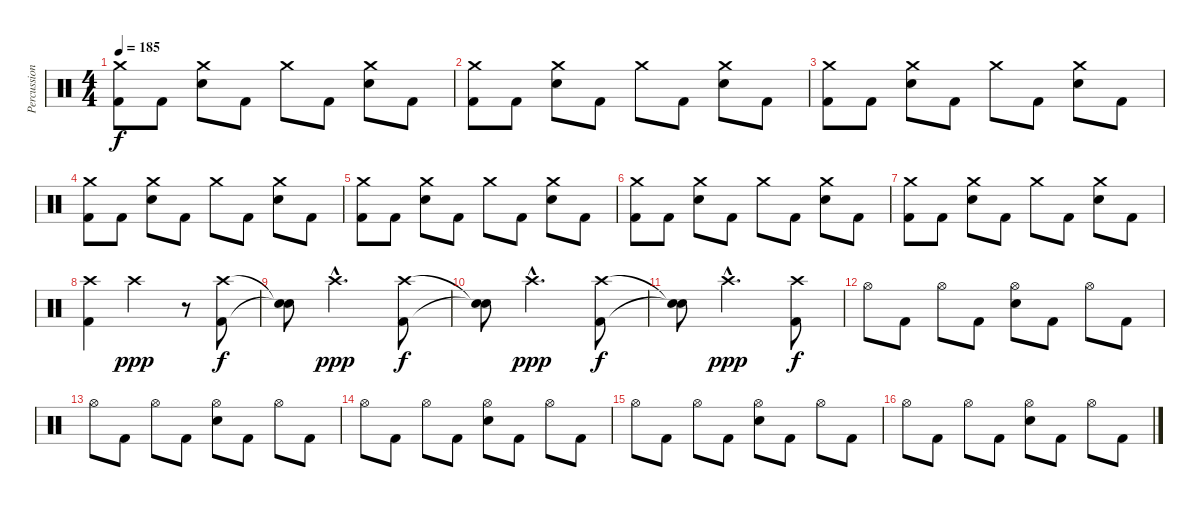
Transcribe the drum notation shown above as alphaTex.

\track ("Percussion" "Percussion") {instrument percussion}
\staff {score}
\articulation defaults
\ts (4 4)
\tempo 185
\clef neutral
\ks c
("Crash medium (hit)" "Kick (hit) 2").8{dy f} "Kick (hit) 2".8 ("Crash medium (hit)" "Electric Snare (hit)").8 "Kick (hit) 2".8 "Crash medium (hit)".8 "Kick (hit) 2".8 ("Crash medium (hit)" "Electric Snare (hit)").8 "Kick (hit) 2".8 |
("Crash medium (hit)" "Kick (hit) 2").8 "Kick (hit) 2".8 ("Crash medium (hit)" "Electric Snare (hit)").8 "Kick (hit) 2".8 "Crash medium (hit)".8 "Kick (hit) 2".8 ("Crash medium (hit)" "Electric Snare (hit)").8 "Kick (hit) 2".8 |
("Crash medium (hit)" "Kick (hit) 2").8 "Kick (hit) 2".8 ("Crash medium (hit)" "Electric Snare (hit)").8 "Kick (hit) 2".8 "Crash medium (hit)".8 "Kick (hit) 2".8 ("Crash medium (hit)" "Electric Snare (hit)").8 "Kick (hit) 2".8 |
("Crash medium (hit)" "Kick (hit) 2").8 "Kick (hit) 2".8 ("Crash medium (hit)" "Electric Snare (hit)").8 "Kick (hit) 2".8 "Crash medium (hit)".8 "Kick (hit) 2".8 ("Crash medium (hit)" "Electric Snare (hit)").8 "Kick (hit) 2".8 |
("Crash medium (hit)" "Kick (hit) 2").8 "Kick (hit) 2".8 ("Crash medium (hit)" "Electric Snare (hit)").8 "Kick (hit) 2".8 "Crash medium (hit)".8 "Kick (hit) 2".8 ("Crash medium (hit)" "Electric Snare (hit)").8 "Kick (hit) 2".8 |
("Crash medium (hit)" "Kick (hit) 2").8 "Kick (hit) 2".8 ("Crash medium (hit)" "Electric Snare (hit)").8 "Kick (hit) 2".8 "Crash medium (hit)".8 "Kick (hit) 2".8 ("Crash medium (hit)" "Electric Snare (hit)").8 "Kick (hit) 2".8 |
("Crash medium (hit)" "Kick (hit) 2").8 "Kick (hit) 2".8 ("Crash medium (hit)" "Electric Snare (hit)").8 "Kick (hit) 2".8 "Crash medium (hit)".8 "Kick (hit) 2".8 ("Crash medium (hit)" "Electric Snare (hit)").8 "Kick (hit) 2".8 |
("Crash high (hit)" "Kick (hit) 2").4 "Crash high (hit)".2{dy ppp} r.8 ("Crash high (hit)" "Kick (hit) 2").8{dy f} |
("Snare (hit)"{t} "Snare (hit)"{t}).8 "Crash high (hit)"{hac}.2{d dy ppp} ("Crash high (hit)" "Kick (hit) 2").8{dy f} |
("Snare (hit)"{t} "Snare (hit)"{t}).8 "Crash high (hit)"{hac}.2{d dy ppp} ("Crash high (hit)" "Kick (hit) 2").8{dy f} |
("Snare (hit)"{t} "Snare (hit)"{t}).8 "Crash high (hit)"{hac}.2{d dy ppp} ("Crash high (hit)" "Kick (hit) 2").8{dy f} |
"Hi-Hat (open)".8 "Kick (hit) 2".8 "Hi-Hat (open)".8 "Kick (hit) 2".8 ("Hi-Hat (open)" "Electric Snare (hit)").8 "Kick (hit) 2".8 "Hi-Hat (open)".8 "Kick (hit) 2".8 |
"Hi-Hat (open)".8 "Kick (hit) 2".8 "Hi-Hat (open)".8 "Kick (hit) 2".8 ("Hi-Hat (open)" "Electric Snare (hit)").8 "Kick (hit) 2".8 "Hi-Hat (open)".8 "Kick (hit) 2".8 |
"Hi-Hat (open)".8 "Kick (hit) 2".8 "Hi-Hat (open)".8 "Kick (hit) 2".8 ("Hi-Hat (open)" "Electric Snare (hit)").8 "Kick (hit) 2".8 "Hi-Hat (open)".8 "Kick (hit) 2".8 |
"Hi-Hat (open)".8 "Kick (hit) 2".8 "Hi-Hat (open)".8 "Kick (hit) 2".8 ("Hi-Hat (open)" "Electric Snare (hit)").8 "Kick (hit) 2".8 "Hi-Hat (open)".8 "Kick (hit) 2".8 |
"Hi-Hat (open)".8 "Kick (hit) 2".8 "Hi-Hat (open)".8 "Kick (hit) 2".8 ("Hi-Hat (open)" "Electric Snare (hit)").8 "Kick (hit) 2".8 "Hi-Hat (open)".8 "Kick (hit) 2".8
